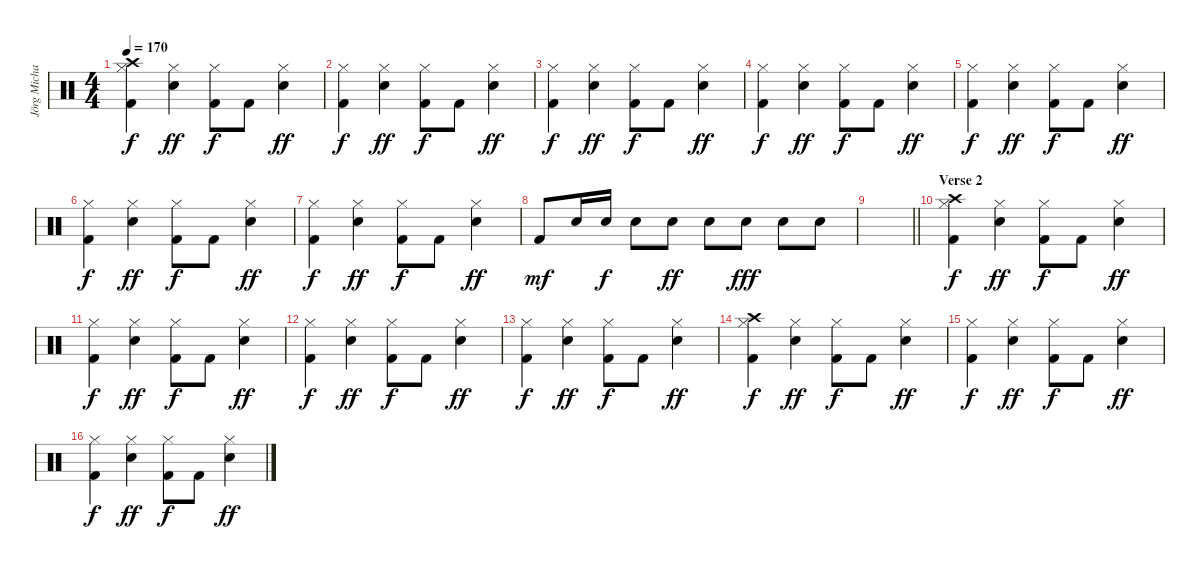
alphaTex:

\track ("Jörg Michael" "Jörg Micha") {instrument percussion}
\staff {score}
\articulation defaults
\ts (4 4)
\tempo 170
\clef neutral
\ks c
("Kick (hit) 2" "Hi-Hat (closed)" "Crash high (hit)").4{dy f} ("Electric Snare (hit)" "Hi-Hat (closed)").4{dy ff} ("Kick (hit) 2" "Hi-Hat (closed)").8{dy f} "Kick (hit) 2".8 ("Electric Snare (hit)" "Hi-Hat (closed)").4{dy ff} |
("Kick (hit) 2" "Hi-Hat (closed)").4{dy f} ("Electric Snare (hit)" "Hi-Hat (closed)").4{dy ff} ("Kick (hit) 2" "Hi-Hat (closed)").8{dy f} "Kick (hit) 2".8 ("Electric Snare (hit)" "Hi-Hat (closed)").4{dy ff} |
("Kick (hit) 2" "Hi-Hat (closed)").4{dy f} ("Electric Snare (hit)" "Hi-Hat (closed)").4{dy ff} ("Kick (hit) 2" "Hi-Hat (closed)").8{dy f} "Kick (hit) 2".8 ("Electric Snare (hit)" "Hi-Hat (closed)").4{dy ff} |
("Kick (hit) 2" "Hi-Hat (closed)").4{dy f} ("Electric Snare (hit)" "Hi-Hat (closed)").4{dy ff} ("Kick (hit) 2" "Hi-Hat (closed)").8{dy f} "Kick (hit) 2".8 ("Electric Snare (hit)" "Hi-Hat (closed)").4{dy ff} |
("Kick (hit) 2" "Hi-Hat (closed)").4{dy f} ("Electric Snare (hit)" "Hi-Hat (closed)").4{dy ff} ("Kick (hit) 2" "Hi-Hat (closed)").8{dy f} "Kick (hit) 2".8 ("Electric Snare (hit)" "Hi-Hat (closed)").4{dy ff} |
("Kick (hit) 2" "Hi-Hat (closed)").4{dy f} ("Electric Snare (hit)" "Hi-Hat (closed)").4{dy ff} ("Kick (hit) 2" "Hi-Hat (closed)").8{dy f} "Kick (hit) 2".8 ("Electric Snare (hit)" "Hi-Hat (closed)").4{dy ff} |
("Kick (hit) 2" "Hi-Hat (closed)").4{dy f} ("Electric Snare (hit)" "Hi-Hat (closed)").4{dy ff} ("Kick (hit) 2" "Hi-Hat (closed)").8{dy f} "Kick (hit) 2".8 ("Electric Snare (hit)" "Hi-Hat (closed)").4{dy ff} |
"Kick (hit) 2".8{dy mf} "Electric Snare (hit)".16 "Electric Snare (hit)".16{dy f} "Electric Snare (hit)".8 "Electric Snare (hit)".8{dy ff} "Electric Snare (hit)".8 "Electric Snare (hit)".8{dy fff} "Electric Snare (hit)".8 "Electric Snare (hit)".8 |
\barLineRight lightlight
|
\section ("" "Verse 2")
("Kick (hit) 2" "Hi-Hat (closed)" "Crash high (hit)").4{dy f} ("Electric Snare (hit)" "Hi-Hat (closed)").4{dy ff} ("Kick (hit) 2" "Hi-Hat (closed)").8{dy f} "Kick (hit) 2".8 ("Electric Snare (hit)" "Hi-Hat (closed)").4{dy ff} |
("Kick (hit) 2" "Hi-Hat (closed)").4{dy f} ("Electric Snare (hit)" "Hi-Hat (closed)").4{dy ff} ("Kick (hit) 2" "Hi-Hat (closed)").8{dy f} "Kick (hit) 2".8 ("Electric Snare (hit)" "Hi-Hat (closed)").4{dy ff} |
("Kick (hit) 2" "Hi-Hat (closed)").4{dy f} ("Electric Snare (hit)" "Hi-Hat (closed)").4{dy ff} ("Kick (hit) 2" "Hi-Hat (closed)").8{dy f} "Kick (hit) 2".8 ("Electric Snare (hit)" "Hi-Hat (closed)").4{dy ff} |
("Kick (hit) 2" "Hi-Hat (closed)").4{dy f} ("Electric Snare (hit)" "Hi-Hat (closed)").4{dy ff} ("Kick (hit) 2" "Hi-Hat (closed)").8{dy f} "Kick (hit) 2".8 ("Electric Snare (hit)" "Hi-Hat (closed)").4{dy ff} |
("Kick (hit) 2" "Hi-Hat (closed)" "Crash high (hit)").4{dy f} ("Electric Snare (hit)" "Hi-Hat (closed)").4{dy ff} ("Kick (hit) 2" "Hi-Hat (closed)").8{dy f} "Kick (hit) 2".8 ("Electric Snare (hit)" "Hi-Hat (closed)").4{dy ff} |
("Kick (hit) 2" "Hi-Hat (closed)").4{dy f} ("Electric Snare (hit)" "Hi-Hat (closed)").4{dy ff} ("Kick (hit) 2" "Hi-Hat (closed)").8{dy f} "Kick (hit) 2".8 ("Electric Snare (hit)" "Hi-Hat (closed)").4{dy ff} |
("Kick (hit) 2" "Hi-Hat (closed)").4{dy f} ("Electric Snare (hit)" "Hi-Hat (closed)").4{dy ff} ("Kick (hit) 2" "Hi-Hat (closed)").8{dy f} "Kick (hit) 2".8 ("Electric Snare (hit)" "Hi-Hat (closed)").4{dy ff}
